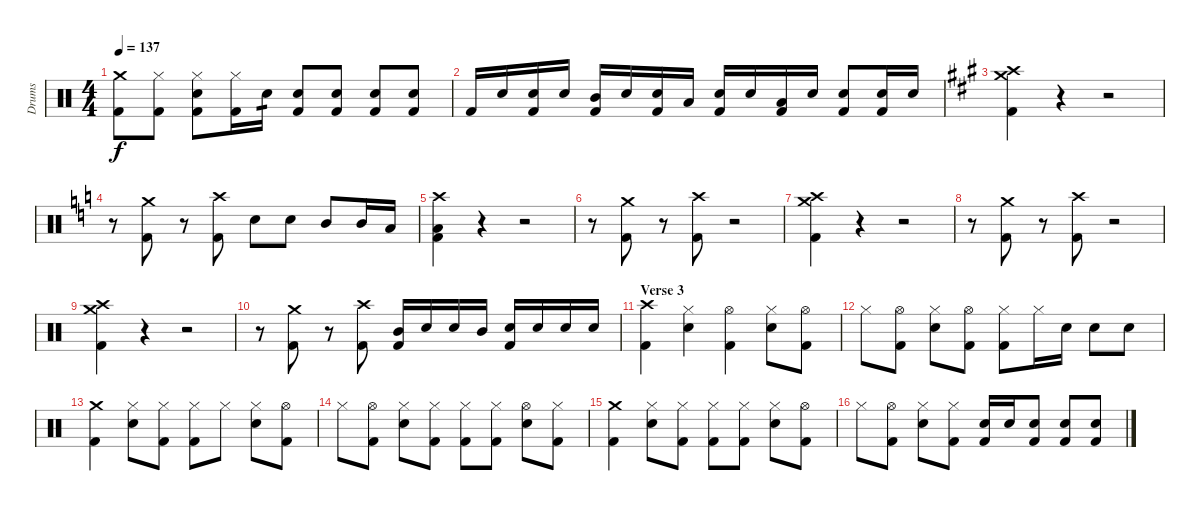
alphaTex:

\track ("Drums" "Drums") {instrument percussion}
\staff {score}
\articulation defaults
\ts (4 4)
\tempo 137
\clef neutral
\ks c
("Crash medium (hit)" "Kick (hit) 2").8{dy f} ("Hi-Hat (closed)" "Kick (hit) 2").8 ("Hi-Hat (closed)" "Snare (hit) 2" "Kick (hit) 2").8 ("Hi-Hat (closed)" "Kick (hit) 2").16 "Snare (hit) 2".16{tp 1} ("Snare (hit) 2" "Kick (hit) 2").8 ("Snare (hit) 2" "Kick (hit) 2").8 ("Snare (hit) 2" "Kick (hit) 2").8 ("Snare (hit) 2" "Kick (hit) 2").8 |
"Kick (hit) 2".16 "Snare (hit) 2".16 ("Snare (hit) 2" "Kick (hit) 2").16 "Snare (hit) 2".16 ("Mid Tom (hit)" "Kick (hit) 2").16 "Snare (hit) 2".16 ("Snare (hit) 2" "Kick (hit) 2").16 "Low Tom (hit)".16 ("Snare (hit) 2" "Kick (hit) 2").16 "Snare (hit) 2".16 ("Low Tom (hit)" "Kick (hit) 2").16 "Snare (hit) 2".16 ("Snare (hit) 2" "Kick (hit) 2").8 ("Snare (hit) 2" "Kick (hit) 2").16 "Snare (hit) 2".16 |
\ks a
("Crash medium (hit)" "Crash high (hit)" "Kick (hit) 2").4 r.4 r.2 |
\ks c
r.8 ("Crash medium (hit)" "Kick (hit) 2").8 r.8 ("Crash high (hit)" "Kick (hit) 2").8 "Snare (hit) 2".8 "Snare (hit) 2".8 "Mid Tom (hit)".8 "Mid Tom (hit)".16 "Low Tom (hit)".16 |
("Crash high (hit)" "Low Tom (hit)" "Kick (hit) 2").4 r.4 r.2 |
r.8 ("Crash medium (hit)" "Kick (hit) 2").8 r.8 ("Crash high (hit)" "Kick (hit) 2").8 r.2 |
("Crash high (hit)" "Crash medium (hit)" "Kick (hit) 2").4 r.4 r.2 |
r.8 ("Crash medium (hit)" "Kick (hit) 2").8 r.8 ("Crash high (hit)" "Kick (hit) 2").8 r.2 |
("Crash high (hit)" "Crash medium (hit)" "Kick (hit) 2").4 r.4 r.2 |
r.8 ("Crash medium (hit)" "Kick (hit) 2").8 r.8 ("Crash high (hit)" "Kick (hit) 2").8 ("Mid Tom (hit)" "Kick (hit) 2").16 "Snare (hit) 2".16 "Snare (hit) 2".16 "Mid Tom (hit)".16 ("Snare (hit) 2" "Kick (hit) 2").16 "Snare (hit) 2".16 "Snare (hit) 2".16 "Snare (hit) 2".16 |
\section ("" "Verse 3")
("Crash high (hit)" "Kick (hit) 2").4 ("Hi-Hat (closed)" "Snare (hit) 2").4 ("Hi-Hat (open)" "Kick (hit) 2").4 ("Hi-Hat (closed)" "Snare (hit) 2").8 ("Hi-Hat (open)" "Kick (hit) 2").8 |
"Hi-Hat (closed)".8 ("Hi-Hat (open)" "Kick (hit) 2").8 ("Hi-Hat (closed)" "Snare (hit) 2").8 ("Hi-Hat (open)" "Kick (hit) 2").8 ("Hi-Hat (closed)" "Kick (hit) 2").8 "Hi-Hat (closed)".16 "Snare (hit) 2".16 "Snare (hit) 2".8 "Snare (hit) 2".8 |
("Crash medium (hit)" "Kick (hit) 2").4 ("Hi-Hat (closed)" "Snare (hit) 2").8 ("Hi-Hat (closed)" "Kick (hit) 2").8 ("Hi-Hat (closed)" "Kick (hit) 2").8 "Hi-Hat (closed)".8 ("Hi-Hat (closed)" "Snare (hit) 2").8 ("Hi-Hat (open)" "Kick (hit) 2").8 |
"Hi-Hat (closed)".8 ("Hi-Hat (open)" "Kick (hit) 2").8 ("Hi-Hat (closed)" "Snare (hit) 2").8 ("Hi-Hat (closed)" "Kick (hit) 2").8 ("Hi-Hat (closed)" "Kick (hit) 2").8 ("Hi-Hat (closed)" "Kick (hit) 2").8 ("Hi-Hat (open)" "Snare (hit) 2").8 ("Hi-Hat (closed)" "Kick (hit) 2").8 |
("Crash medium (hit)" "Kick (hit) 2").4 ("Hi-Hat (closed)" "Snare (hit) 2").8 ("Hi-Hat (closed)" "Kick (hit) 2").8 ("Hi-Hat (closed)" "Kick (hit) 2").8 ("Hi-Hat (closed)" "Kick (hit) 2").8 ("Hi-Hat (closed)" "Snare (hit) 2").8 ("Hi-Hat (open)" "Kick (hit) 2").8 |
"Hi-Hat (closed)".8 ("Hi-Hat (open)" "Kick (hit) 2").8 ("Hi-Hat (closed)" "Snare (hit) 2").8 ("Hi-Hat (closed)" "Kick (hit) 2").8 ("Snare (hit) 2" "Kick (hit) 2").16 "Snare (hit) 2".16 ("Snare (hit) 2" "Kick (hit) 2").8 ("Snare (hit) 2" "Kick (hit) 2").8 ("Snare (hit) 2" "Kick (hit) 2").8
